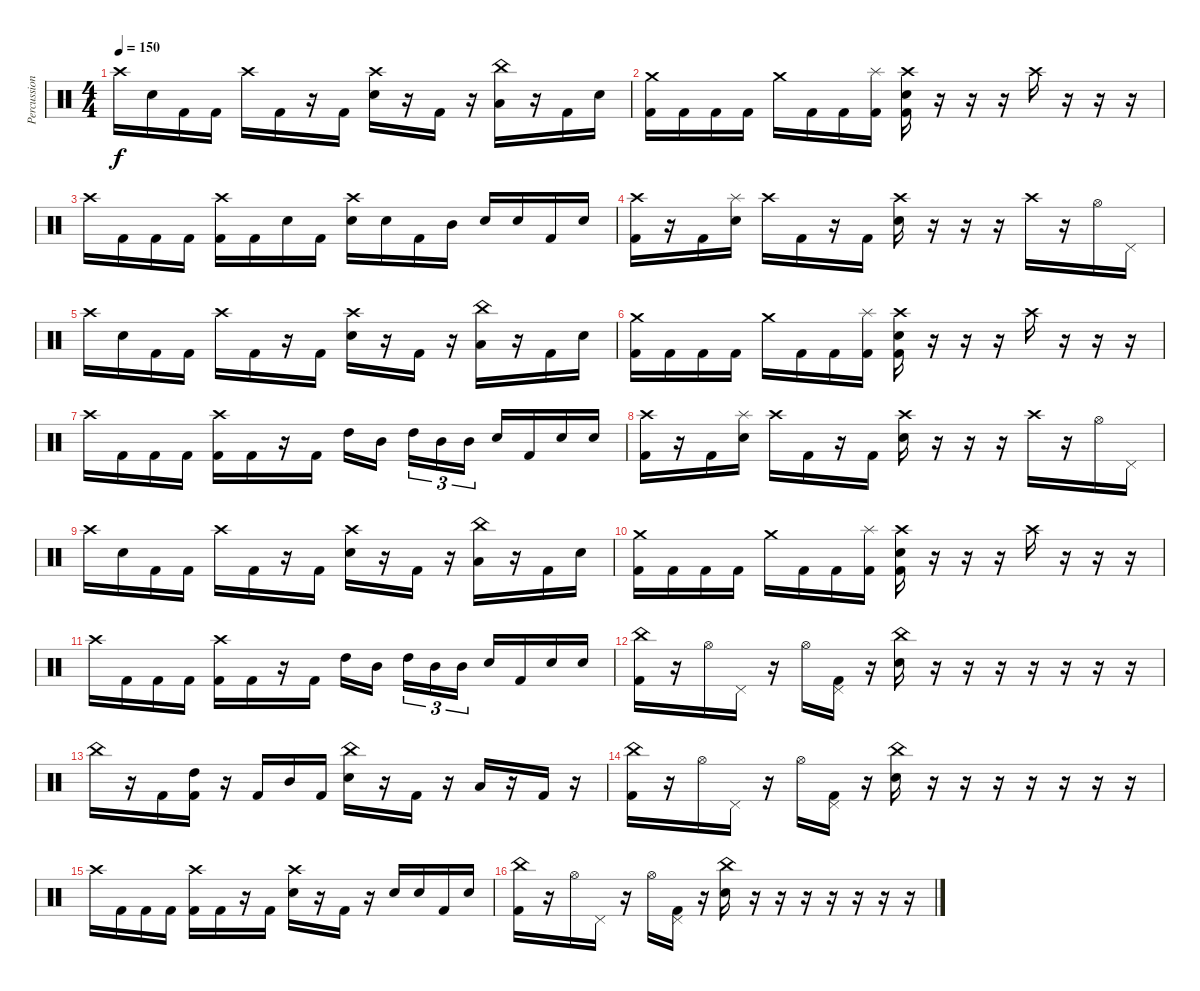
\track ("Percussion" "Percussion") {instrument percussion}
\staff {score}
\articulation defaults
\ts (4 4)
\tempo 150
\clef neutral
\ks c "Crash high (hit)".16{dy f} "Electric Snare (hit)".16 "Kick (hit) 2".16 "Kick (hit) 2".16 "Crash high (hit)".16 "Kick (hit) 2".16
r.16 "Kick (hit) 2".16 ("Crash high (hit)" "Electric Snare (hit)").16 r.16 "Kick (hit) 2".16 r.16 ("China (hit)" "Low Tom (hit)").16 r.16 "Kick (hit) 2".16 "Electric Snare (hit)".16 |
("Crash medium (hit)" "Kick (hit) 2").16 "Kick (hit) 2".16 "Kick (hit) 2".16 "Kick (hit) 2".16 "Crash medium (hit)".16 "Kick (hit) 2".16 "Kick (hit) 2".16 ("Splash (hit)" "Kick (hit) 2").16 ("Crash high (hit)" "Electric Snare (hit)" "Kick (hit) 2").16 r.16 r.16 r.16 "Crash high (hit)".16 r.16 r.16 r.16 |
"Crash high (hit)".16 "Kick (hit) 2".16 "Kick (hit) 2".16 "Kick (hit) 2".16 ("Crash high (hit)" "Kick (hit) 2").16 "Kick (hit) 2".16 "Electric Snare (hit)".16 "Kick (hit) 2".16 ("Crash high (hit)" "Electric Snare (hit)").16 "Electric Snare (hit)".16 "Kick (hit) 2".16 "Mid Tom (hit)".16 "Electric Snare (hit)".16 "Electric Snare (hit)".16 "Kick (hit) 2".16 "Electric Snare (hit)".16 |
("Crash high (hit)" "Kick (hit) 2").16 r.16 "Kick (hit) 2".16 ("Splash (hit)" "Electric Snare (hit)").16 "Crash high (hit)".16 "Kick (hit) 2".16 r.16 "Kick (hit) 2".16 ("Crash high (hit)" "Electric Snare (hit)").16 r.16 r.16 r.16 "Crash high (hit)".16 r.16 "Hi-Hat (open)".16 "Pedal Hi-Hat (hit)".16 |
"Crash high (hit)".16 "Electric Snare (hit)".16 "Kick (hit) 2".16 "Kick (hit) 2".16 "Crash high (hit)".16 "Kick (hit) 2".16 r.16 "Kick (hit) 2".16 ("Crash high (hit)" "Electric Snare (hit)").16 r.16 "Kick (hit) 2".16 r.16 ("China (hit)" "Low Tom (hit)").16 r.16 "Kick (hit) 2".16 "Electric Snare (hit)".16 |
("Crash medium (hit)" "Kick (hit) 2").16 "Kick (hit) 2".16 "Kick (hit) 2".16 "Kick (hit) 2".16 "Crash medium (hit)".16 "Kick (hit) 2".16 "Kick (hit) 2".16 ("Splash (hit)" "Kick (hit) 2").16 ("Crash high (hit)" "Electric Snare (hit)" "Kick (hit) 2").16 r.16 r.16 r.16 "Crash high (hit)".16 r.16 r.16 r.16 |
"Crash high (hit)".16 "Kick (hit) 2".16 "Kick (hit) 2".16 "Kick (hit) 2".16 ("Crash high (hit)" "Kick (hit) 2").16 "Kick (hit) 2".16 r.16 "Kick (hit) 2".16 "High Tom (hit)".16 "Mid Tom (hit)".16{beam splitsecondary} "High Tom (hit)".16{tu (3 2)} "Mid Tom (hit)".16{tu (3 2)} "Mid Tom (hit)".16{tu (3 2)} "Electric Snare (hit)".16 "Kick (hit) 2".16 "Electric Snare (hit)".16 "Electric Snare (hit)".16 |
("Crash high (hit)" "Kick (hit) 2").16 r.16 "Kick (hit) 2".16 ("Splash (hit)" "Electric Snare (hit)").16 "Crash high (hit)".16 "Kick (hit) 2".16 r.16 "Kick (hit) 2".16 ("Crash high (hit)" "Electric Snare (hit)").16 r.16 r.16 r.16 "Crash high (hit)".16 r.16 "Hi-Hat (open)".16 "Pedal Hi-Hat (hit)".16 |
"Crash high (hit)".16 "Electric Snare (hit)".16 "Kick (hit) 2".16 "Kick (hit) 2".16 "Crash high (hit)".16 "Kick (hit) 2".16 r.16 "Kick (hit) 2".16 ("Crash high (hit)" "Electric Snare (hit)").16 r.16 "Kick (hit) 2".16 r.16 ("China (hit)" "Low Tom (hit)").16 r.16 "Kick (hit) 2".16 "Electric Snare (hit)".16 |
("Crash medium (hit)" "Kick (hit) 2").16 "Kick (hit) 2".16 "Kick (hit) 2".16 "Kick (hit) 2".16 "Crash medium (hit)".16 "Kick (hit) 2".16 "Kick (hit) 2".16 ("Splash (hit)" "Kick (hit) 2").16 ("Crash high (hit)" "Electric Snare (hit)" "Kick (hit) 2").16 r.16 r.16 r.16 "Crash high (hit)".16 r.16 r.16 r.16 |
"Crash high (hit)".16 "Kick (hit) 2".16 "Kick (hit) 2".16 "Kick (hit) 2".16 ("Crash high (hit)" "Kick (hit) 2").16 "Kick (hit) 2".16 r.16 "Kick (hit) 2".16 "High Tom (hit)".16 "Mid Tom (hit)".16{beam splitsecondary} "High Tom (hit)".16{tu (3 2)} "Mid Tom (hit)".16{tu (3 2)} "Mid Tom (hit)".16{tu (3 2)} "Electric Snare (hit)".16 "Kick (hit) 2".16 "Electric Snare (hit)".16 "Electric Snare (hit)".16 |
("China (hit)" "Kick (hit) 2").16 r.16 "Hi-Hat (open)".16 "Pedal Hi-Hat (hit)".16 r.16 "Hi-Hat (open)".16 ("Pedal Hi-Hat (hit)" "Kick (hit) 2").16 r.16 ("China (hit)" "Electric Snare (hit)").16 r.16 r.16 r.16 r.16 r.16 r.16 r.16 |
"China (hit)".16 r.16 "Kick (hit) 2".16 ("High Tom (hit)" "Kick (hit) 2").16 r.16 "Kick (hit) 2".16 "Mid Tom (hit)".16 "Kick (hit) 2".16 ("China (hit)" "Electric Snare (hit)").16 r.16 "Kick (hit) 2".16 r.16 "Low Tom (hit)".16 r.16 "Kick (hit) 2".16 r.16 |
("China (hit)" "Kick (hit) 2").16 r.16 "Hi-Hat (open)".16 "Pedal Hi-Hat (hit)".16 r.16 "Hi-Hat (open)".16 ("Pedal Hi-Hat (hit)" "Kick (hit) 2").16 r.16 ("China (hit)" "Electric Snare (hit)").16 r.16 r.16 r.16 r.16 r.16 r.16 r.16 |
"Crash high (hit)".16 "Kick (hit) 2".16 "Kick (hit) 2".16 "Kick (hit) 2".16 ("Crash high (hit)" "Kick (hit) 2").16 "Kick (hit) 2".16 r.16 "Kick (hit) 2".16 ("Crash high (hit)" "Electric Snare (hit)").16 r.16 "Kick (hit) 2".16 r.16 "Electric Snare (hit)".16 "Electric Snare (hit)".16 "Kick (hit) 2".16 "Electric Snare (hit)".16 |
("China (hit)" "Kick (hit) 2").16 r.16 "Hi-Hat (open)".16 "Pedal Hi-Hat (hit)".16 r.16 "Hi-Hat (open)".16 ("Pedal Hi-Hat (hit)" "Kick (hit) 2").16 r.16 ("China (hit)" "Electric Snare (hit)").16 r.16 r.16 r.16 r.16 r.16 r.16 r.16
